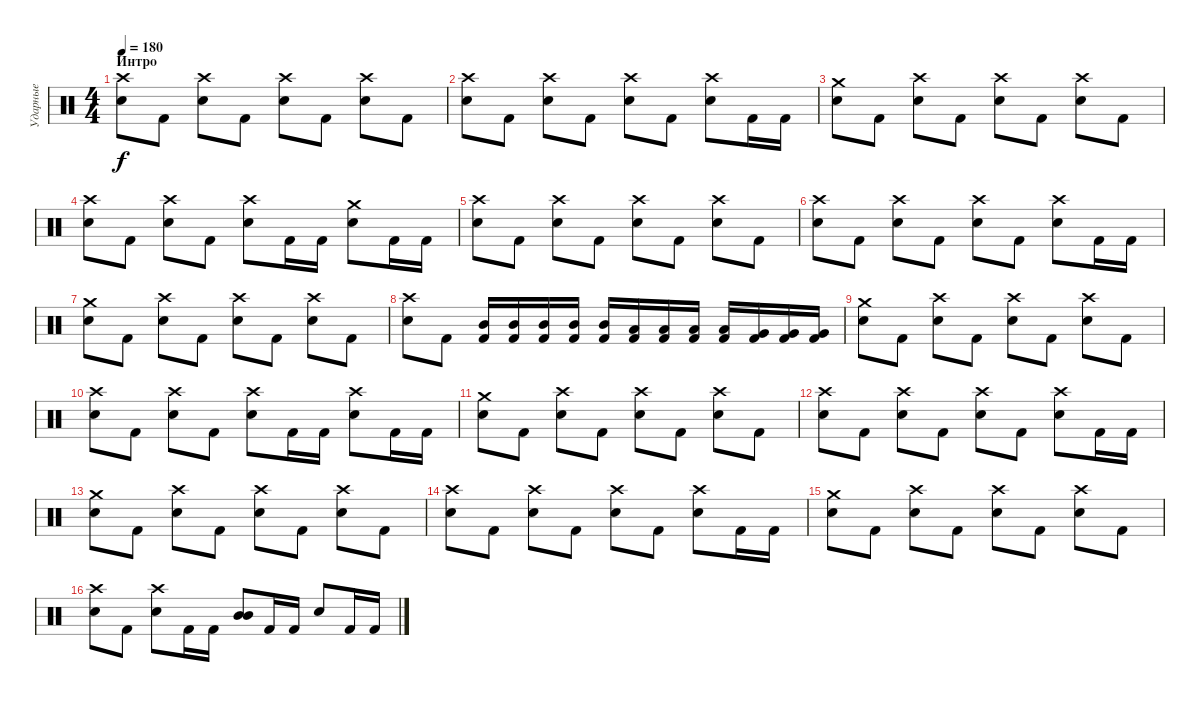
\track ("Ударные" "Ударные") {instrument percussion}
\staff {score}
\articulation defaults
\ts (4 4)
\section ("" "Интро")
\tempo 180
\clef neutral
\ks c
("Crash high (hit)" "Snare (hit) 2").8{dy f} "Kick (hit) 2".8 ("Crash high (hit)" "Snare (hit) 2").8 "Kick (hit) 2".8 ("Crash high (hit)" "Snare (hit) 2").8 "Kick (hit) 2".8 ("Crash high (hit)" "Snare (hit) 2").8 "Kick (hit) 2".8 |
("Crash high (hit)" "Snare (hit) 2").8 "Kick (hit) 2".8 ("Crash high (hit)" "Snare (hit) 2").8 "Kick (hit) 2".8 ("Crash high (hit)" "Snare (hit) 2").8 "Kick (hit) 2".8 ("Crash high (hit)" "Snare (hit) 2").8 "Kick (hit) 2".16 "Kick (hit) 2".16 |
("Crash medium (hit)" "Snare (hit) 2").8 "Kick (hit) 2".8 ("Crash high (hit)" "Snare (hit) 2").8 "Kick (hit) 2".8 ("Crash high (hit)" "Snare (hit) 2").8 "Kick (hit) 2".8 ("Crash high (hit)" "Snare (hit) 2").8 "Kick (hit) 2".8 |
("Crash high (hit)" "Snare (hit) 2").8 "Kick (hit) 2".8 ("Crash high (hit)" "Snare (hit) 2").8 "Kick (hit) 2".8 ("Crash high (hit)" "Snare (hit) 2").8 "Kick (hit) 2".16 "Kick (hit) 2".16 ("Crash medium (hit)" "Snare (hit) 2").8 "Kick (hit) 2".16 "Kick (hit) 2".16 |
("Crash high (hit)" "Snare (hit) 2").8 "Kick (hit) 2".8 ("Crash high (hit)" "Snare (hit) 2").8 "Kick (hit) 2".8 ("Crash high (hit)" "Snare (hit) 2").8 "Kick (hit) 2".8 ("Crash high (hit)" "Snare (hit) 2").8 "Kick (hit) 2".8 |
("Crash high (hit)" "Snare (hit) 2").8 "Kick (hit) 2".8 ("Crash high (hit)" "Snare (hit) 2").8 "Kick (hit) 2".8 ("Crash high (hit)" "Snare (hit) 2").8 "Kick (hit) 2".8 ("Crash high (hit)" "Snare (hit) 2").8 "Kick (hit) 2".16 "Kick (hit) 2".16 |
("Crash medium (hit)" "Snare (hit) 2").8 "Kick (hit) 2".8 ("Crash high (hit)" "Snare (hit) 2").8 "Kick (hit) 2".8 ("Crash high (hit)" "Snare (hit) 2").8 "Kick (hit) 2".8 ("Crash high (hit)" "Snare (hit) 2").8 "Kick (hit) 2".8 |
("Crash high (hit)" "Snare (hit) 2").8 "Kick (hit) 2".8 ("Mid Tom (hit)" "Kick (hit) 2").16 ("Mid Tom (hit)" "Kick (hit) 2").16 ("Mid Tom (hit)" "Kick (hit) 2").16 ("Mid Tom (hit)" "Kick (hit) 2").16 ("Mid Tom (hit)" "Kick (hit) 2").16 ("Low Tom (hit)" "Kick (hit) 2").16 ("Low Tom (hit)" "Kick (hit) 2").16 ("Low Tom (hit)" "Kick (hit) 2").16 ("Low Tom (hit)" "Kick (hit) 2").16 ("Very Low Tom (hit)" "Kick (hit) 2").16 ("Very Low Tom (hit)" "Kick (hit) 2").16 ("Very Low Tom (hit)" "Kick (hit) 2").16 |
("Crash medium (hit)" "Snare (hit) 2").8 "Kick (hit) 2".8 ("Crash high (hit)" "Snare (hit) 2").8 "Kick (hit) 2".8 ("Crash high (hit)" "Snare (hit) 2").8 "Kick (hit) 2".8 ("Crash high (hit)" "Snare (hit) 2").8 "Kick (hit) 2".8 |
("Crash high (hit)" "Snare (hit) 2").8 "Kick (hit) 2".8 ("Crash high (hit)" "Snare (hit) 2").8 "Kick (hit) 2".8 ("Crash high (hit)" "Snare (hit) 2").8 "Kick (hit) 2".16 "Kick (hit) 2".16 ("Crash high (hit)" "Snare (hit) 2").8 "Kick (hit) 2".16 "Kick (hit) 2".16 |
("Crash medium (hit)" "Snare (hit) 2").8 "Kick (hit) 2".8 ("Crash high (hit)" "Snare (hit) 2").8 "Kick (hit) 2".8 ("Crash high (hit)" "Snare (hit) 2").8 "Kick (hit) 2".8 ("Crash high (hit)" "Snare (hit) 2").8 "Kick (hit) 2".8 |
("Crash high (hit)" "Snare (hit) 2").8 "Kick (hit) 2".8 ("Crash high (hit)" "Snare (hit) 2").8 "Kick (hit) 2".8 ("Crash high (hit)" "Snare (hit) 2").8 "Kick (hit) 2".8 ("Crash high (hit)" "Snare (hit) 2").8 "Kick (hit) 2".16 "Kick (hit) 2".16 |
("Crash medium (hit)" "Snare (hit) 2").8 "Kick (hit) 2".8 ("Crash high (hit)" "Snare (hit) 2").8 "Kick (hit) 2".8 ("Crash high (hit)" "Snare (hit) 2").8 "Kick (hit) 2".8 ("Crash high (hit)" "Snare (hit) 2").8 "Kick (hit) 2".8 |
("Crash high (hit)" "Snare (hit) 2").8 "Kick (hit) 2".8 ("Crash high (hit)" "Snare (hit) 2").8 "Kick (hit) 2".8 ("Crash high (hit)" "Snare (hit) 2").8 "Kick (hit) 2".8 ("Crash high (hit)" "Snare (hit) 2").8 "Kick (hit) 2".16 "Kick (hit) 2".16 |
("Crash medium (hit)" "Snare (hit) 2").8 "Kick (hit) 2".8 ("Crash high (hit)" "Snare (hit) 2").8 "Kick (hit) 2".8 ("Crash high (hit)" "Snare (hit) 2").8 "Kick (hit) 2".8 ("Crash high (hit)" "Snare (hit) 2").8 "Kick (hit) 2".8 |
("Crash high (hit)" "Snare (hit) 2").8 "Kick (hit) 2".8 ("Crash high (hit)" "Snare (hit) 2").8 "Kick (hit) 2".16 "Kick (hit) 2".16 ("Mid Tom (hit)" "Mid Tom (hit)").8 "Kick (hit) 2".16 "Kick (hit) 2".16 "Snare (hit) 2".8 "Kick (hit) 2".16 "Kick (hit) 2".16
